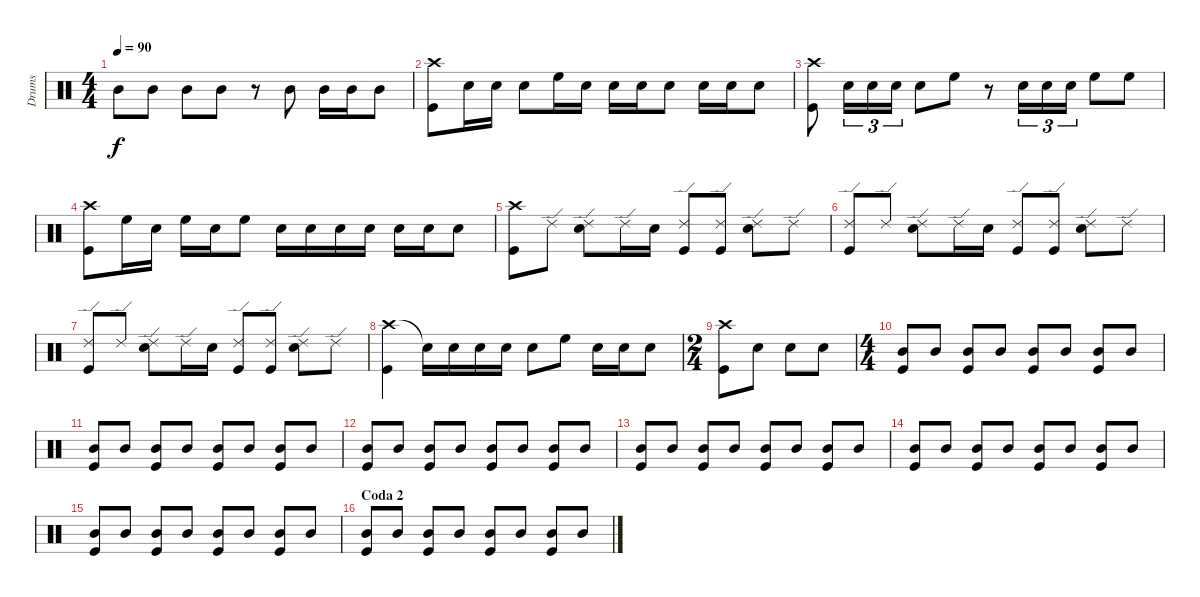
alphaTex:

\track ("Drums" "Drums") {instrument percussion}
\staff {score}
\articulation defaults
\ts (4 4)
\tempo 90
\clef neutral
\ks c "Mid Tom (hit)".8{dy f} "Mid Tom (hit)".8 "Mid Tom (hit)".8 "Mid Tom (hit)".8
r.8 "Mid Tom (hit)".8 "Mid Tom (hit)".16 "Mid Tom (hit)".16 "Mid Tom (hit)".8 |
("Crash high (hit)" "Kick (hit)").8 "Snare (hit) 2".16 "Snare (hit) 2".16 "Snare (hit) 2".8 "High Floor Tom (hit)".16 "Snare (hit) 2".16 "Snare (hit) 2".16 "Snare (hit) 2".16 "Snare (hit) 2".8 "Snare (hit) 2".16 "Snare (hit) 2".16 "Snare (hit) 2".8 |
("Crash high (hit)" "Kick (hit)").8 "Snare (hit) 2".16{tu (3 2)} "Snare (hit) 2".16{tu (3 2)} "Snare (hit) 2".16{tu (3 2)} "Snare (hit) 2".8 "High Floor Tom (hit)".8 r.8 "Snare (hit) 2".16{tu (3 2)} "Snare (hit) 2".16{tu (3 2)} "Snare (hit) 2".16{tu (3 2)} "High Floor Tom (hit)".8 "High Floor Tom (hit)".8 |
("Crash high (hit)" "Kick (hit)").8 "High Floor Tom (hit)".16 "Snare (hit) 2".16 "High Floor Tom (hit)".16 "Snare (hit) 2".16 "High Floor Tom (hit)".8 "Snare (hit) 2".16 "Snare (hit) 2".16 "Snare (hit) 2".16 "Snare (hit) 2".16 "Snare (hit) 2".16 "Snare (hit) 2".16 "Snare (hit) 2".8 |
("Crash high (hit)" "Kick (hit)").8 "Ride (edge) 2".8 ("Ride (edge) 2" "Snare (hit) 2").8 "Ride (edge) 2".16 "Snare (hit) 2".16 ("Ride (edge) 2" "Kick (hit)").8 ("Ride (edge) 2" "Kick (hit)").8 ("Ride (edge) 2" "Snare (hit) 2").8 "Ride (edge) 2".8 |
("Ride (edge) 2" "Kick (hit)").8 "Ride (edge) 2".8 ("Ride (edge) 2" "Snare (hit) 2").8 "Ride (edge) 2".16 "Snare (hit) 2".16 ("Ride (edge) 2" "Kick (hit)").8 ("Ride (edge) 2" "Kick (hit)").8 ("Ride (edge) 2" "Snare (hit) 2").8 "Ride (edge) 2".8 |
("Ride (edge) 2" "Kick (hit)").8 "Ride (edge) 2".8 ("Ride (edge) 2" "Snare (hit) 2").8 "Ride (edge) 2".16 "Snare (hit) 2".16 ("Ride (edge) 2" "Kick (hit)").8 ("Ride (edge) 2" "Kick (hit)").8 ("Ride (edge) 2" "Snare (hit) 2").8 "Ride (edge) 2".8 |
("Crash high (hit)" "Kick (hit)").4 "Snare (hit)"{t}.16 "Snare (hit) 2".16 "Snare (hit) 2".16 "Snare (hit) 2".16 "Snare (hit) 2".8 "High Floor Tom (hit)".8 "Snare (hit) 2".16 "Snare (hit) 2".16 "Snare (hit) 2".8 |
\ts (2 4)
("Crash high (hit)" "Kick (hit)").8 "Snare (hit) 2".8 "Snare (hit) 2".8 "Snare (hit) 2".8 |
\ts (4 4)
("Mid Tom (hit)" "Kick (hit)").8 "Mid Tom (hit)".8 ("Mid Tom (hit)" "Kick (hit)").8 "Mid Tom (hit)".8 ("Mid Tom (hit)" "Kick (hit)").8 "Mid Tom (hit)".8 ("Mid Tom (hit)" "Kick (hit)").8 "Mid Tom (hit)".8 |
("Mid Tom (hit)" "Kick (hit)").8 "Mid Tom (hit)".8 ("Mid Tom (hit)" "Kick (hit)").8 "Mid Tom (hit)".8 ("Mid Tom (hit)" "Kick (hit)").8 "Mid Tom (hit)".8 ("Mid Tom (hit)" "Kick (hit)").8 "Mid Tom (hit)".8 |
("Mid Tom (hit)" "Kick (hit)").8 "Mid Tom (hit)".8 ("Mid Tom (hit)" "Kick (hit)").8 "Mid Tom (hit)".8 ("Mid Tom (hit)" "Kick (hit)").8 "Mid Tom (hit)".8 ("Mid Tom (hit)" "Kick (hit)").8 "Mid Tom (hit)".8 |
("Mid Tom (hit)" "Kick (hit)").8 "Mid Tom (hit)".8 ("Mid Tom (hit)" "Kick (hit)").8 "Mid Tom (hit)".8 ("Mid Tom (hit)" "Kick (hit)").8 "Mid Tom (hit)".8 ("Mid Tom (hit)" "Kick (hit)").8 "Mid Tom (hit)".8 |
("Mid Tom (hit)" "Kick (hit)").8 "Mid Tom (hit)".8 ("Mid Tom (hit)" "Kick (hit)").8 "Mid Tom (hit)".8 ("Mid Tom (hit)" "Kick (hit)").8 "Mid Tom (hit)".8 ("Mid Tom (hit)" "Kick (hit)").8 "Mid Tom (hit)".8 |
("Mid Tom (hit)" "Kick (hit)").8 "Mid Tom (hit)".8 ("Mid Tom (hit)" "Kick (hit)").8 "Mid Tom (hit)".8 ("Mid Tom (hit)" "Kick (hit)").8 "Mid Tom (hit)".8 ("Mid Tom (hit)" "Kick (hit)").8 "Mid Tom (hit)".8 |
\section ("" "Coda 2")
("Mid Tom (hit)" "Kick (hit)").8 "Mid Tom (hit)".8 ("Mid Tom (hit)" "Kick (hit)").8 "Mid Tom (hit)".8 ("Mid Tom (hit)" "Kick (hit)").8 "Mid Tom (hit)".8 ("Mid Tom (hit)" "Kick (hit)").8 "Mid Tom (hit)".8
